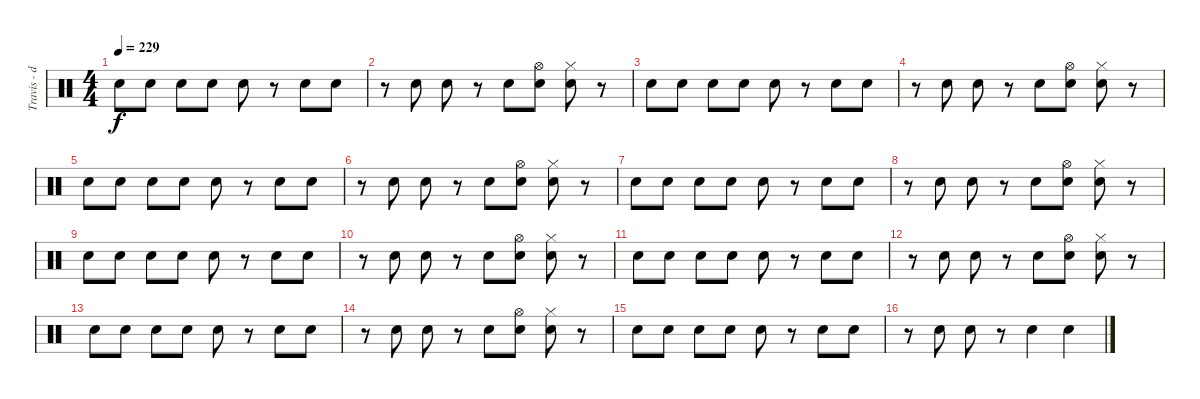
\track ("Travis - drums" "Travis - d") {instrument percussion}
\staff {score}
\articulation defaults
\ts (4 4)
\tempo 229
\clef neutral
\ks c "Snare (hit) 2".8{dy f} "Snare (hit) 2".8 "Snare (hit) 2".8 "Snare (hit) 2".8 "Snare (hit) 2".8
r.8 "Snare (hit) 2".8 "Snare (hit) 2".8 |
r.8 "Snare (hit) 2".8 "Snare (hit) 2".8 r.8 "Snare (hit) 2".8 ("Electric Snare (hit)" "Hi-Hat (open)").8 ("Electric Snare (hit)" "Hi-Hat (closed)").8 r.8 |
"Snare (hit) 2".8 "Snare (hit) 2".8 "Snare (hit) 2".8 "Snare (hit) 2".8 "Snare (hit) 2".8 r.8 "Snare (hit) 2".8 "Snare (hit) 2".8 |
r.8 "Snare (hit) 2".8 "Snare (hit) 2".8 r.8 "Snare (hit) 2".8 ("Electric Snare (hit)" "Hi-Hat (open)").8 ("Hi-Hat (closed)" "Electric Snare (hit)").8 r.8 |
"Snare (hit) 2".8 "Snare (hit) 2".8 "Snare (hit) 2".8 "Snare (hit) 2".8 "Snare (hit) 2".8 r.8 "Snare (hit) 2".8 "Snare (hit) 2".8 |
r.8 "Snare (hit) 2".8 "Snare (hit) 2".8 r.8 "Snare (hit) 2".8 ("Hi-Hat (open)" "Electric Snare (hit)").8 ("Hi-Hat (closed)" "Electric Snare (hit)").8 r.8 |
"Snare (hit) 2".8 "Snare (hit) 2".8 "Snare (hit) 2".8 "Snare (hit) 2".8 "Snare (hit) 2".8 r.8 "Snare (hit) 2".8 "Snare (hit) 2".8 |
r.8 "Snare (hit) 2".8 "Snare (hit) 2".8 r.8 "Snare (hit) 2".8 ("Electric Snare (hit)" "Hi-Hat (open)").8 ("Hi-Hat (closed)" "Electric Snare (hit)").8 r.8 |
"Snare (hit) 2".8 "Snare (hit) 2".8 "Snare (hit) 2".8 "Snare (hit) 2".8 "Snare (hit) 2".8 r.8 "Snare (hit) 2".8 "Snare (hit) 2".8 |
r.8 "Snare (hit) 2".8 "Snare (hit) 2".8 r.8 "Snare (hit) 2".8 ("Electric Snare (hit)" "Hi-Hat (open)").8 ("Electric Snare (hit)" "Hi-Hat (closed)").8 r.8 |
"Snare (hit) 2".8 "Snare (hit) 2".8 "Snare (hit) 2".8 "Snare (hit) 2".8 "Snare (hit) 2".8 r.8 "Snare (hit) 2".8 "Snare (hit) 2".8 |
r.8 "Snare (hit) 2".8 "Snare (hit) 2".8 r.8 "Snare (hit) 2".8 ("Hi-Hat (open)" "Electric Snare (hit)").8 ("Hi-Hat (closed)" "Electric Snare (hit)").8 r.8 |
"Snare (hit) 2".8 "Snare (hit) 2".8 "Snare (hit) 2".8 "Snare (hit) 2".8 "Snare (hit) 2".8 r.8 "Snare (hit) 2".8 "Snare (hit) 2".8 |
r.8 "Snare (hit) 2".8 "Snare (hit) 2".8 r.8 "Snare (hit) 2".8 ("Electric Snare (hit)" "Hi-Hat (open)").8 ("Electric Snare (hit)" "Hi-Hat (closed)").8 r.8 |
"Snare (hit) 2".8 "Snare (hit) 2".8 "Snare (hit) 2".8 "Snare (hit) 2".8 "Snare (hit) 2".8 r.8 "Snare (hit) 2".8 "Snare (hit) 2".8 |
r.8 "Snare (hit) 2".8 "Snare (hit) 2".8 r.8 "Electric Snare (hit)".4 "Electric Snare (hit)".4
